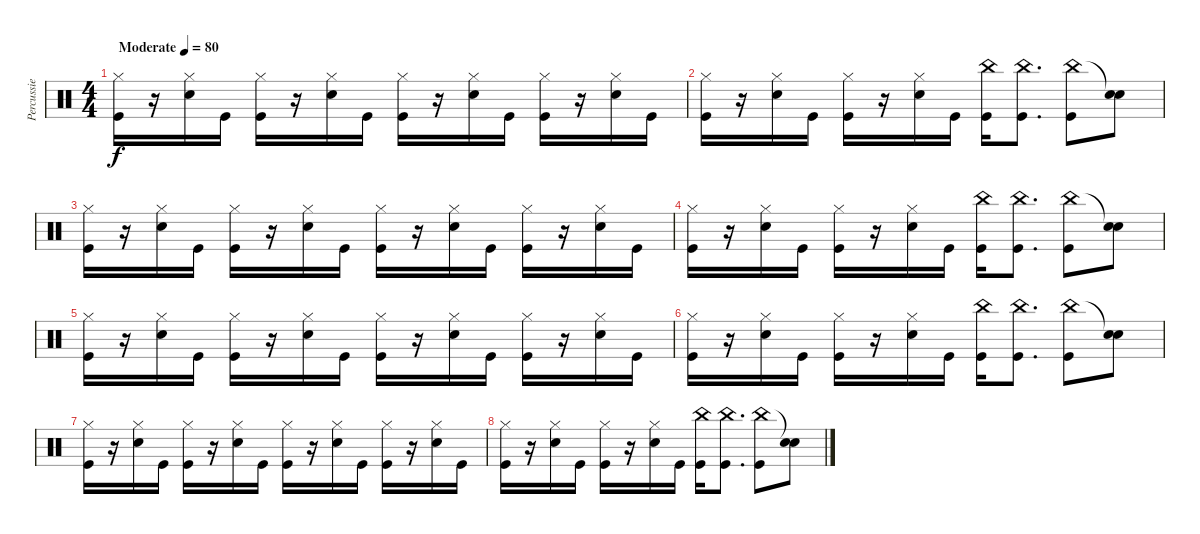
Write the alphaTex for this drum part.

\track ("Percussie" "Percussie") {instrument percussion}
\staff {score}
\articulation defaults
\ts (4 4)
\tempo (80 "Moderate")
\clef neutral
\ks c
("Hi-Hat (closed)" "Kick (hit)").16{dy f} r.16 ("Hi-Hat (closed)" "Snare (hit) 2").16 "Kick (hit)".16 ("Hi-Hat (closed)" "Kick (hit)").16 r.16 ("Hi-Hat (closed)" "Snare (hit) 2").16 "Kick (hit)".16 ("Hi-Hat (closed)" "Kick (hit)").16 r.16 ("Hi-Hat (closed)" "Snare (hit) 2").16 "Kick (hit)".16 ("Hi-Hat (closed)" "Kick (hit)").16 r.16 ("Hi-Hat (closed)" "Snare (hit) 2").16 "Kick (hit)".16 |
("Hi-Hat (closed)" "Kick (hit)").16 r.16 ("Hi-Hat (closed)" "Snare (hit) 2").16 "Kick (hit)".16 ("Hi-Hat (closed)" "Kick (hit)").16 r.16 ("Hi-Hat (closed)" "Snare (hit) 2").16 "Kick (hit)".16 ("Kick (hit)" "China (hit)").16 ("Kick (hit)" "China (hit)").8{d} ("Kick (hit)" "China (hit)").8 ("Snare (hit) 2" "Snare (hit)"{t}).8 |
("Hi-Hat (closed)" "Kick (hit)").16 r.16 ("Hi-Hat (closed)" "Snare (hit) 2").16 "Kick (hit)".16 ("Hi-Hat (closed)" "Kick (hit)").16 r.16 ("Hi-Hat (closed)" "Snare (hit) 2").16 "Kick (hit)".16 ("Hi-Hat (closed)" "Kick (hit)").16 r.16 ("Hi-Hat (closed)" "Snare (hit) 2").16 "Kick (hit)".16 ("Hi-Hat (closed)" "Kick (hit)").16 r.16 ("Hi-Hat (closed)" "Snare (hit) 2").16 "Kick (hit)".16 |
("Hi-Hat (closed)" "Kick (hit)").16 r.16 ("Hi-Hat (closed)" "Snare (hit) 2").16 "Kick (hit)".16 ("Hi-Hat (closed)" "Kick (hit)").16 r.16 ("Hi-Hat (closed)" "Snare (hit) 2").16 "Kick (hit)".16 ("Kick (hit)" "China (hit)").16 ("Kick (hit)" "China (hit)").8{d} ("Kick (hit)" "China (hit)").8 ("Snare (hit) 2" "Snare (hit)"{t}).8 |
("Hi-Hat (closed)" "Kick (hit)").16 r.16 ("Hi-Hat (closed)" "Snare (hit) 2").16 "Kick (hit)".16 ("Hi-Hat (closed)" "Kick (hit)").16 r.16 ("Hi-Hat (closed)" "Snare (hit) 2").16 "Kick (hit)".16 ("Hi-Hat (closed)" "Kick (hit)").16 r.16 ("Hi-Hat (closed)" "Snare (hit) 2").16 "Kick (hit)".16 ("Hi-Hat (closed)" "Kick (hit)").16 r.16 ("Hi-Hat (closed)" "Snare (hit) 2").16 "Kick (hit)".16 |
("Hi-Hat (closed)" "Kick (hit)").16 r.16 ("Hi-Hat (closed)" "Snare (hit) 2").16 "Kick (hit)".16 ("Hi-Hat (closed)" "Kick (hit)").16 r.16 ("Hi-Hat (closed)" "Snare (hit) 2").16 "Kick (hit)".16 ("Kick (hit)" "China (hit)").16 ("Kick (hit)" "China (hit)").8{d} ("Kick (hit)" "China (hit)").8 ("Snare (hit) 2" "Snare (hit)"{t}).8 |
("Hi-Hat (closed)" "Kick (hit)").16 r.16 ("Hi-Hat (closed)" "Snare (hit) 2").16 "Kick (hit)".16 ("Hi-Hat (closed)" "Kick (hit)").16 r.16 ("Hi-Hat (closed)" "Snare (hit) 2").16 "Kick (hit)".16 ("Hi-Hat (closed)" "Kick (hit)").16 r.16 ("Hi-Hat (closed)" "Snare (hit) 2").16 "Kick (hit)".16 ("Hi-Hat (closed)" "Kick (hit)").16 r.16 ("Hi-Hat (closed)" "Snare (hit) 2").16 "Kick (hit)".16 |
("Hi-Hat (closed)" "Kick (hit)").16 r.16 ("Hi-Hat (closed)" "Snare (hit) 2").16 "Kick (hit)".16 ("Hi-Hat (closed)" "Kick (hit)").16 r.16 ("Hi-Hat (closed)" "Snare (hit) 2").16 "Kick (hit)".16 ("Kick (hit)" "China (hit)").16 ("Kick (hit)" "China (hit)").8{d} ("Kick (hit)" "China (hit)").8 ("Snare (hit) 2" "Snare (hit)"{t}).8
